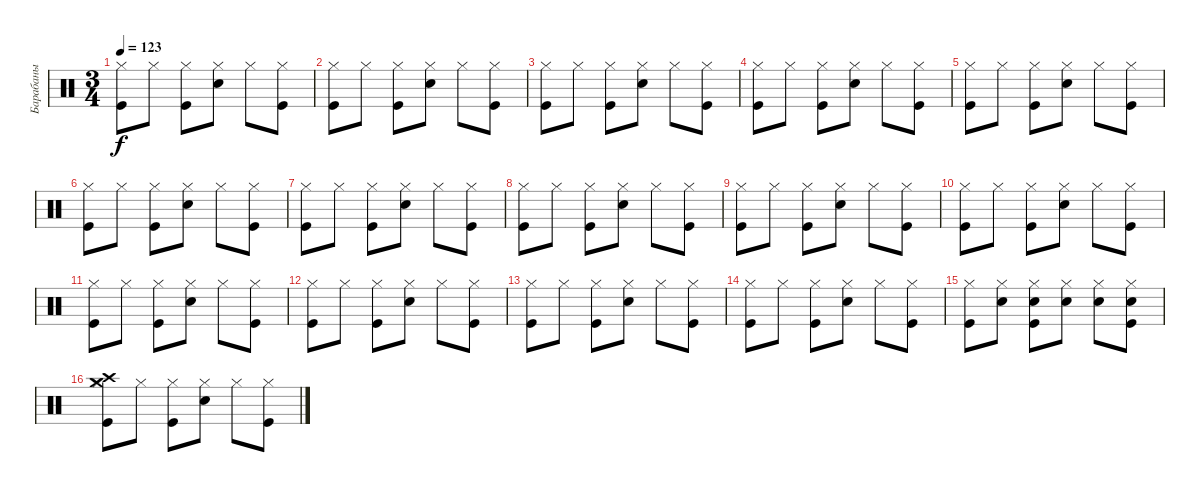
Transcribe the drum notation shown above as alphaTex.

\track ("Барабаны" "Барабаны") {instrument percussion}
\staff {score}
\articulation defaults
\ts (3 4)
\tempo 123
\clef neutral
\ks c
("Kick (hit)" "Hi-Hat (closed)").8{dy f} "Hi-Hat (closed)".8 ("Kick (hit)" "Hi-Hat (closed)").8 ("Snare (hit) 2" "Hi-Hat (closed)").8 "Hi-Hat (closed)".8 ("Kick (hit)" "Hi-Hat (closed)").8 |
("Kick (hit)" "Hi-Hat (closed)").8 "Hi-Hat (closed)".8 ("Kick (hit)" "Hi-Hat (closed)").8 ("Snare (hit) 2" "Hi-Hat (closed)").8 "Hi-Hat (closed)".8 ("Kick (hit)" "Hi-Hat (closed)").8 |
("Kick (hit)" "Hi-Hat (closed)").8 "Hi-Hat (closed)".8 ("Kick (hit)" "Hi-Hat (closed)").8 ("Snare (hit) 2" "Hi-Hat (closed)").8 "Hi-Hat (closed)".8 ("Kick (hit)" "Hi-Hat (closed)").8 |
("Kick (hit)" "Hi-Hat (closed)").8 "Hi-Hat (closed)".8 ("Kick (hit)" "Hi-Hat (closed)").8 ("Snare (hit) 2" "Hi-Hat (closed)").8 "Hi-Hat (closed)".8 ("Kick (hit)" "Hi-Hat (closed)").8 |
("Kick (hit)" "Hi-Hat (closed)").8 "Hi-Hat (closed)".8 ("Kick (hit)" "Hi-Hat (closed)").8 ("Snare (hit) 2" "Hi-Hat (closed)").8 "Hi-Hat (closed)".8 ("Kick (hit)" "Hi-Hat (closed)").8 |
("Kick (hit)" "Hi-Hat (closed)").8 "Hi-Hat (closed)".8 ("Kick (hit)" "Hi-Hat (closed)").8 ("Snare (hit) 2" "Hi-Hat (closed)").8 "Hi-Hat (closed)".8 ("Kick (hit)" "Hi-Hat (closed)").8 |
("Kick (hit)" "Hi-Hat (closed)").8 "Hi-Hat (closed)".8 ("Kick (hit)" "Hi-Hat (closed)").8 ("Snare (hit) 2" "Hi-Hat (closed)").8 "Hi-Hat (closed)".8 ("Kick (hit)" "Hi-Hat (closed)").8 |
("Kick (hit)" "Hi-Hat (closed)").8 "Hi-Hat (closed)".8 ("Kick (hit)" "Hi-Hat (closed)").8 ("Snare (hit) 2" "Hi-Hat (closed)").8 "Hi-Hat (closed)".8 ("Kick (hit)" "Hi-Hat (closed)").8 |
("Kick (hit)" "Hi-Hat (closed)").8 "Hi-Hat (closed)".8 ("Kick (hit)" "Hi-Hat (closed)").8 ("Snare (hit) 2" "Hi-Hat (closed)").8 "Hi-Hat (closed)".8 ("Kick (hit)" "Hi-Hat (closed)").8 |
("Kick (hit)" "Hi-Hat (closed)").8 "Hi-Hat (closed)".8 ("Kick (hit)" "Hi-Hat (closed)").8 ("Snare (hit) 2" "Hi-Hat (closed)").8 "Hi-Hat (closed)".8 ("Kick (hit)" "Hi-Hat (closed)").8 |
("Kick (hit)" "Hi-Hat (closed)").8 "Hi-Hat (closed)".8 ("Kick (hit)" "Hi-Hat (closed)").8 ("Snare (hit) 2" "Hi-Hat (closed)").8 "Hi-Hat (closed)".8 ("Kick (hit)" "Hi-Hat (closed)").8 |
("Kick (hit)" "Hi-Hat (closed)").8 "Hi-Hat (closed)".8 ("Kick (hit)" "Hi-Hat (closed)").8 ("Snare (hit) 2" "Hi-Hat (closed)").8 "Hi-Hat (closed)".8 ("Kick (hit)" "Hi-Hat (closed)").8 |
("Kick (hit)" "Hi-Hat (closed)").8 "Hi-Hat (closed)".8 ("Kick (hit)" "Hi-Hat (closed)").8 ("Snare (hit) 2" "Hi-Hat (closed)").8 "Hi-Hat (closed)".8 ("Kick (hit)" "Hi-Hat (closed)").8 |
("Kick (hit)" "Hi-Hat (closed)").8 "Hi-Hat (closed)".8 ("Kick (hit)" "Hi-Hat (closed)").8 ("Snare (hit) 2" "Hi-Hat (closed)").8 "Hi-Hat (closed)".8 ("Kick (hit)" "Hi-Hat (closed)").8 |
("Kick (hit)" "Hi-Hat (closed)").8 ("Snare (hit) 2" "Hi-Hat (closed)").8 ("Kick (hit)" "Snare (hit) 2" "Hi-Hat (closed)").8 ("Snare (hit) 2" "Hi-Hat (closed)").8 ("Snare (hit) 2" "Hi-Hat (closed)").8 ("Kick (hit)" "Snare (hit) 2" "Hi-Hat (closed)").8 |
("Kick (hit)" "Hi-Hat (closed)" "Crash high (hit)" "Crash medium (hit)").8 "Hi-Hat (closed)".8 ("Kick (hit)" "Hi-Hat (closed)").8 ("Snare (hit) 2" "Hi-Hat (closed)").8 "Hi-Hat (closed)".8 ("Kick (hit)" "Hi-Hat (closed)").8
